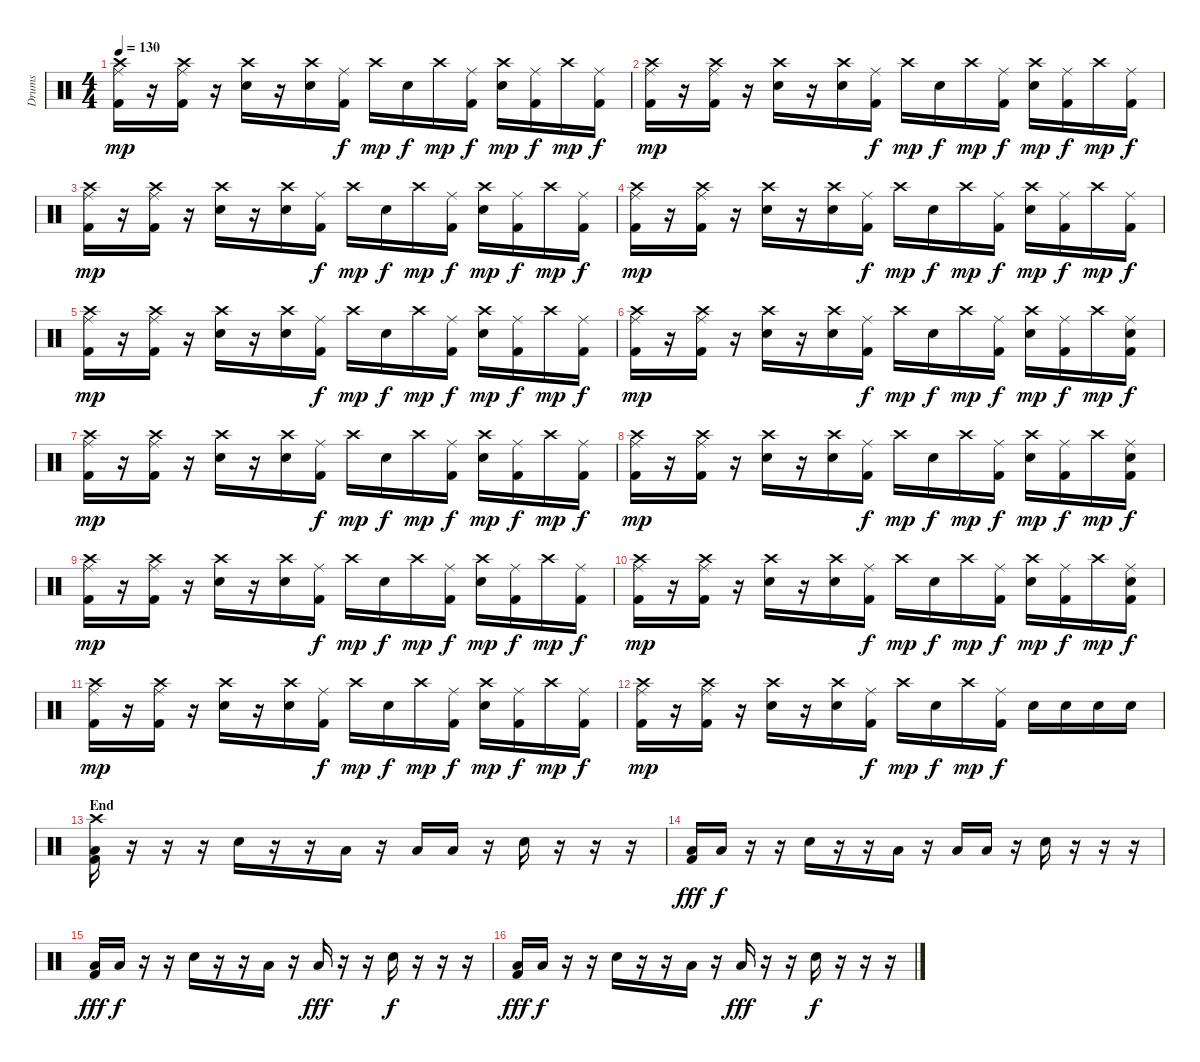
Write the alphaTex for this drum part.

\track ("Drums" "Drums") {instrument percussion}
\staff {score}
\articulation defaults
\ts (4 4)
\tempo 130
\clef neutral
\ks c
("Ride (middle)" "Crash high (hit)" "Kick (hit) 2").16{dy mp} r.16 ("Ride (middle)" "Crash high (hit)" "Kick (hit) 2").16 r.16 ("Crash high (hit)" "Snare (hit) 2").16 r.16 ("Crash high (hit)" "Snare (hit) 2").16 ("Ride (middle)" "Kick (hit) 2").16{dy f} "Crash high (hit)".16{dy mp} "Snare (hit) 2".16{dy f} "Crash high (hit)".16{dy mp} ("Ride (middle)" "Kick (hit) 2").16{dy f} ("Crash high (hit)" "Snare (hit) 2").16{dy mp} ("Ride (middle)" "Kick (hit) 2").16{dy f} "Crash high (hit)".16{dy mp} ("Ride (middle)" "Kick (hit) 2").16{dy f} |
("Ride (middle)" "Crash high (hit)" "Kick (hit) 2").16{dy mp} r.16 ("Ride (middle)" "Crash high (hit)" "Kick (hit) 2").16 r.16 ("Crash high (hit)" "Snare (hit) 2").16 r.16 ("Crash high (hit)" "Snare (hit) 2").16 ("Ride (middle)" "Kick (hit) 2").16{dy f} "Crash high (hit)".16{dy mp} "Snare (hit) 2".16{dy f} "Crash high (hit)".16{dy mp} ("Ride (middle)" "Kick (hit) 2").16{dy f} ("Crash high (hit)" "Snare (hit) 2").16{dy mp} ("Ride (middle)" "Kick (hit) 2").16{dy f} "Crash high (hit)".16{dy mp} ("Ride (middle)" "Kick (hit) 2").16{dy f} |
("Ride (middle)" "Crash high (hit)" "Kick (hit) 2").16{dy mp} r.16 ("Ride (middle)" "Crash high (hit)" "Kick (hit) 2").16 r.16 ("Crash high (hit)" "Snare (hit) 2").16 r.16 ("Crash high (hit)" "Snare (hit) 2").16 ("Ride (middle)" "Kick (hit) 2").16{dy f} "Crash high (hit)".16{dy mp} "Snare (hit) 2".16{dy f} "Crash high (hit)".16{dy mp} ("Ride (middle)" "Kick (hit) 2").16{dy f} ("Crash high (hit)" "Snare (hit) 2").16{dy mp} ("Ride (middle)" "Kick (hit) 2").16{dy f} "Crash high (hit)".16{dy mp} ("Ride (middle)" "Kick (hit) 2").16{dy f} |
("Ride (middle)" "Crash high (hit)" "Kick (hit) 2").16{dy mp} r.16 ("Ride (middle)" "Crash high (hit)" "Kick (hit) 2").16 r.16 ("Crash high (hit)" "Snare (hit) 2").16 r.16 ("Crash high (hit)" "Snare (hit) 2").16 ("Ride (middle)" "Kick (hit) 2").16{dy f} "Crash high (hit)".16{dy mp} "Snare (hit) 2".16{dy f} "Crash high (hit)".16{dy mp} ("Ride (middle)" "Kick (hit) 2").16{dy f} ("Crash high (hit)" "Snare (hit) 2").16{dy mp} ("Ride (middle)" "Kick (hit) 2").16{dy f} "Crash high (hit)".16{dy mp} ("Ride (middle)" "Kick (hit) 2").16{dy f} |
("Ride (middle)" "Crash high (hit)" "Kick (hit) 2").16{dy mp} r.16 ("Ride (middle)" "Crash high (hit)" "Kick (hit) 2").16 r.16 ("Crash high (hit)" "Snare (hit) 2").16 r.16 ("Crash high (hit)" "Snare (hit) 2").16 ("Ride (middle)" "Kick (hit) 2").16{dy f} "Crash high (hit)".16{dy mp} "Snare (hit) 2".16{dy f} "Crash high (hit)".16{dy mp} ("Ride (middle)" "Kick (hit) 2").16{dy f} ("Crash high (hit)" "Snare (hit) 2").16{dy mp} ("Ride (middle)" "Kick (hit) 2").16{dy f} "Crash high (hit)".16{dy mp} ("Ride (middle)" "Kick (hit) 2").16{dy f} |
("Ride (middle)" "Crash high (hit)" "Kick (hit) 2").16{dy mp} r.16 ("Ride (middle)" "Crash high (hit)" "Kick (hit) 2").16 r.16 ("Crash high (hit)" "Snare (hit) 2").16 r.16 ("Crash high (hit)" "Snare (hit) 2").16 ("Ride (middle)" "Kick (hit) 2").16{dy f} "Crash high (hit)".16{dy mp} "Snare (hit) 2".16{dy f} "Crash high (hit)".16{dy mp} ("Ride (middle)" "Kick (hit) 2").16{dy f} ("Crash high (hit)" "Snare (hit) 2").16{dy mp} ("Ride (middle)" "Kick (hit) 2").16{dy f} "Crash high (hit)".16{dy mp} ("Ride (middle)" "Snare (hit) 2" "Kick (hit) 2").16{dy f} |
("Ride (middle)" "Crash high (hit)" "Kick (hit) 2").16{dy mp} r.16 ("Ride (middle)" "Crash high (hit)" "Kick (hit) 2").16 r.16 ("Crash high (hit)" "Snare (hit) 2").16 r.16 ("Crash high (hit)" "Snare (hit) 2").16 ("Ride (middle)" "Kick (hit) 2").16{dy f} "Crash high (hit)".16{dy mp} "Snare (hit) 2".16{dy f} "Crash high (hit)".16{dy mp} ("Ride (middle)" "Kick (hit) 2").16{dy f} ("Crash high (hit)" "Snare (hit) 2").16{dy mp} ("Ride (middle)" "Kick (hit) 2").16{dy f} "Crash high (hit)".16{dy mp} ("Ride (middle)" "Kick (hit) 2").16{dy f} |
("Ride (middle)" "Crash high (hit)" "Kick (hit) 2").16{dy mp} r.16 ("Ride (middle)" "Crash high (hit)" "Kick (hit) 2").16 r.16 ("Crash high (hit)" "Snare (hit) 2").16 r.16 ("Crash high (hit)" "Snare (hit) 2").16 ("Ride (middle)" "Kick (hit) 2").16{dy f} "Crash high (hit)".16{dy mp} "Snare (hit) 2".16{dy f} "Crash high (hit)".16{dy mp} ("Ride (middle)" "Kick (hit) 2").16{dy f} ("Crash high (hit)" "Snare (hit) 2").16{dy mp} ("Ride (middle)" "Kick (hit) 2").16{dy f} "Crash high (hit)".16{dy mp} ("Ride (middle)" "Snare (hit) 2" "Kick (hit) 2").16{dy f} |
("Ride (middle)" "Crash high (hit)" "Kick (hit) 2").16{dy mp} r.16 ("Ride (middle)" "Crash high (hit)" "Kick (hit) 2").16 r.16 ("Crash high (hit)" "Snare (hit) 2").16 r.16 ("Crash high (hit)" "Snare (hit) 2").16 ("Ride (middle)" "Kick (hit) 2").16{dy f} "Crash high (hit)".16{dy mp} "Snare (hit) 2".16{dy f} "Crash high (hit)".16{dy mp} ("Ride (middle)" "Kick (hit) 2").16{dy f} ("Crash high (hit)" "Snare (hit) 2").16{dy mp} ("Ride (middle)" "Kick (hit) 2").16{dy f} "Crash high (hit)".16{dy mp} ("Ride (middle)" "Kick (hit) 2").16{dy f} |
("Ride (middle)" "Crash high (hit)" "Kick (hit) 2").16{dy mp} r.16 ("Ride (middle)" "Crash high (hit)" "Kick (hit) 2").16 r.16 ("Crash high (hit)" "Snare (hit) 2").16 r.16 ("Crash high (hit)" "Snare (hit) 2").16 ("Ride (middle)" "Kick (hit) 2").16{dy f} "Crash high (hit)".16{dy mp} "Snare (hit) 2".16{dy f} "Crash high (hit)".16{dy mp} ("Ride (middle)" "Kick (hit) 2").16{dy f} ("Crash high (hit)" "Snare (hit) 2").16{dy mp} ("Ride (middle)" "Kick (hit) 2").16{dy f} "Crash high (hit)".16{dy mp} ("Ride (middle)" "Snare (hit) 2" "Kick (hit) 2").16{dy f} |
("Ride (middle)" "Crash high (hit)" "Kick (hit) 2").16{dy mp} r.16 ("Ride (middle)" "Crash high (hit)" "Kick (hit) 2").16 r.16 ("Crash high (hit)" "Snare (hit) 2").16 r.16 ("Crash high (hit)" "Snare (hit) 2").16 ("Ride (middle)" "Kick (hit) 2").16{dy f} "Crash high (hit)".16{dy mp} "Snare (hit) 2".16{dy f} "Crash high (hit)".16{dy mp} ("Ride (middle)" "Kick (hit) 2").16{dy f} ("Crash high (hit)" "Snare (hit) 2").16{dy mp} ("Ride (middle)" "Kick (hit) 2").16{dy f} "Crash high (hit)".16{dy mp} ("Ride (middle)" "Kick (hit) 2").16{dy f} |
("Ride (middle)" "Crash high (hit)" "Kick (hit) 2").16{dy mp} r.16 ("Ride (middle)" "Crash high (hit)" "Kick (hit) 2").16 r.16 ("Crash high (hit)" "Snare (hit) 2").16 r.16 ("Crash high (hit)" "Snare (hit) 2").16 ("Ride (middle)" "Kick (hit) 2").16{dy f} "Crash high (hit)".16{dy mp} "Snare (hit) 2".16{dy f} "Crash high (hit)".16{dy mp} ("Ride (middle)" "Kick (hit) 2").16{dy f} "Snare (hit) 2".16 "Snare (hit) 2".16 "Snare (hit) 2".16 "Snare (hit) 2".16 |
\section ("" "End")
("Crash high (hit)" "Kick (hit) 2" "Low Tom (hit)").16 r.16 r.16 r.16 "Snare (hit) 2".16 r.16 r.16 "Low Tom (hit)".16 r.16 "Low Tom (hit)".16 "Low Tom (hit)".16 r.16 "Snare (hit) 2".16 r.16 r.16 r.16 |
("Kick (hit) 2" "Low Tom (hit)").16{dy fff} "Low Tom (hit)".16{dy f} r.16 r.16 "Snare (hit) 2".16 r.16 r.16 "Low Tom (hit)".16 r.16 "Low Tom (hit)".16 "Low Tom (hit)".16 r.16 "Snare (hit) 2".16 r.16 r.16 r.16 |
("Kick (hit) 2" "Low Tom (hit)").16{dy fff} "Low Tom (hit)".16{dy f} r.16 r.16 "Snare (hit) 2".16 r.16 r.16 "Low Tom (hit)".16 r.16 "Low Tom (hit)".16{dy fff} r.16 r.16 "Snare (hit) 2".16{dy f} r.16 r.16 r.16 |
("Kick (hit) 2" "Low Tom (hit)").16{dy fff} "Low Tom (hit)".16{dy f} r.16 r.16 "Snare (hit) 2".16 r.16 r.16 "Low Tom (hit)".16 r.16 "Low Tom (hit)".16{dy fff} r.16 r.16 "Snare (hit) 2".16{dy f} r.16 r.16 r.16
